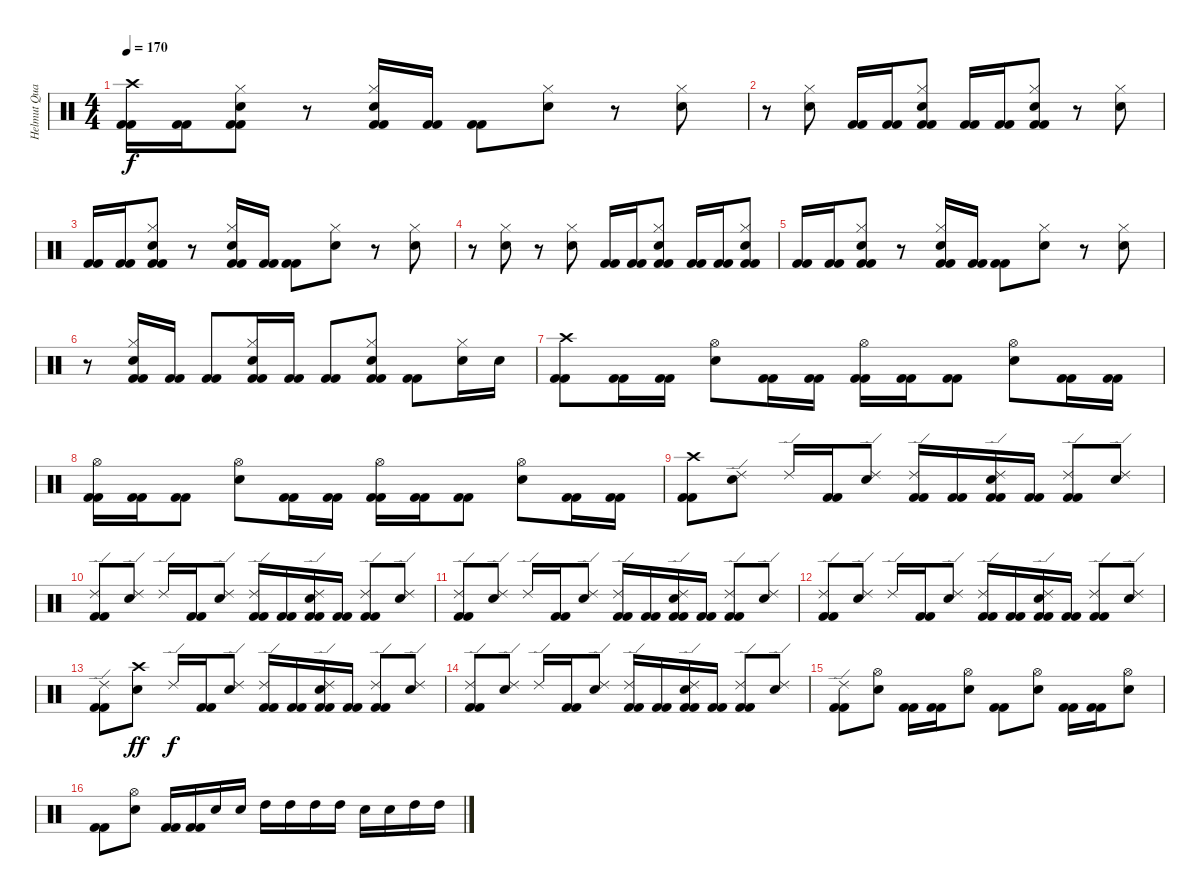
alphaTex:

\track ("Helmut Quacken" "Helmut Qua") {instrument percussion}
\staff {score}
\articulation defaults
\ts (4 4)
\tempo 170
\clef neutral
\ks c
("Crash high (hit)" "Kick (hit) 2" "Kick (hit) 2").16{dy f} ("Kick (hit) 2" "Kick (hit) 2").16 ("Hi-Hat (closed)" "Electric Snare (hit)" "Kick (hit) 2" "Kick (hit) 2").8 r.8 ("Hi-Hat (closed)" "Electric Snare (hit)" "Kick (hit) 2" "Kick (hit) 2").16 ("Kick (hit) 2" "Kick (hit) 2").16 ("Kick (hit) 2" "Kick (hit) 2").8 ("Hi-Hat (closed)" "Electric Snare (hit)").8 r.8 ("Hi-Hat (closed)" "Electric Snare (hit)").8 |
r.8 ("Hi-Hat (closed)" "Electric Snare (hit)").8 ("Kick (hit) 2" "Kick (hit) 2").16 ("Kick (hit) 2" "Kick (hit) 2").16 ("Hi-Hat (closed)" "Electric Snare (hit)" "Kick (hit) 2" "Kick (hit) 2").8 ("Kick (hit) 2" "Kick (hit) 2").16 ("Kick (hit) 2" "Kick (hit) 2").16 ("Hi-Hat (closed)" "Electric Snare (hit)" "Kick (hit) 2" "Kick (hit) 2").8 r.8 ("Hi-Hat (closed)" "Electric Snare (hit)").8 |
("Kick (hit) 2" "Kick (hit) 2").16 ("Kick (hit) 2" "Kick (hit) 2").16 ("Hi-Hat (closed)" "Electric Snare (hit)" "Kick (hit) 2" "Kick (hit) 2").8 r.8 ("Hi-Hat (closed)" "Electric Snare (hit)" "Kick (hit) 2" "Kick (hit) 2").16 ("Kick (hit) 2" "Kick (hit) 2").16 ("Kick (hit) 2" "Kick (hit) 2").8 ("Hi-Hat (closed)" "Electric Snare (hit)").8 r.8 ("Hi-Hat (closed)" "Electric Snare (hit)").8 |
r.8 ("Hi-Hat (closed)" "Electric Snare (hit)").8 r.8 ("Hi-Hat (closed)" "Electric Snare (hit)").8 ("Kick (hit) 2" "Kick (hit) 2").16 ("Kick (hit) 2" "Kick (hit) 2").16 ("Hi-Hat (closed)" "Electric Snare (hit)" "Kick (hit) 2" "Kick (hit) 2").8 ("Kick (hit) 2" "Kick (hit) 2").16 ("Kick (hit) 2" "Kick (hit) 2").16 ("Hi-Hat (closed)" "Electric Snare (hit)" "Kick (hit) 2" "Kick (hit) 2").8 |
("Kick (hit) 2" "Kick (hit) 2").16 ("Kick (hit) 2" "Kick (hit) 2").16 ("Hi-Hat (closed)" "Electric Snare (hit)" "Kick (hit) 2" "Kick (hit) 2").8 r.8 ("Hi-Hat (closed)" "Electric Snare (hit)" "Kick (hit) 2" "Kick (hit) 2").16 ("Kick (hit) 2" "Kick (hit) 2").16 ("Kick (hit) 2" "Kick (hit) 2").8 ("Hi-Hat (closed)" "Electric Snare (hit)").8 r.8 ("Hi-Hat (closed)" "Electric Snare (hit)").8 |
r.8 ("Hi-Hat (closed)" "Electric Snare (hit)" "Kick (hit) 2" "Kick (hit) 2").16 ("Kick (hit) 2" "Kick (hit) 2").16 ("Kick (hit) 2" "Kick (hit) 2").8 ("Hi-Hat (closed)" "Electric Snare (hit)" "Kick (hit) 2" "Kick (hit) 2").16 ("Kick (hit) 2" "Kick (hit) 2").16 ("Kick (hit) 2" "Kick (hit) 2").8 ("Hi-Hat (closed)" "Electric Snare (hit)" "Kick (hit) 2" "Kick (hit) 2").8 ("Kick (hit) 2" "Kick (hit) 2").8 ("Hi-Hat (closed)" "Electric Snare (hit)").16 "Electric Snare (hit)".16 |
("Crash high (hit)" "Kick (hit) 2" "Kick (hit) 2").8 ("Kick (hit) 2" "Kick (hit) 2").16 ("Kick (hit) 2" "Kick (hit) 2").16 ("Hi-Hat (open)" "Electric Snare (hit)").8 ("Kick (hit) 2" "Kick (hit) 2").16 ("Kick (hit) 2" "Kick (hit) 2").16 ("Hi-Hat (open)" "Kick (hit) 2" "Kick (hit) 2").16 ("Kick (hit) 2" "Kick (hit) 2").16 ("Kick (hit) 2" "Kick (hit) 2").8 ("Hi-Hat (open)" "Electric Snare (hit)").8 ("Kick (hit) 2" "Kick (hit) 2").16 ("Kick (hit) 2" "Kick (hit) 2").16 |
("Hi-Hat (open)" "Kick (hit) 2" "Kick (hit) 2").16 ("Kick (hit) 2" "Kick (hit) 2").16 ("Kick (hit) 2" "Kick (hit) 2").8 ("Hi-Hat (open)" "Electric Snare (hit)").8 ("Kick (hit) 2" "Kick (hit) 2").16 ("Kick (hit) 2" "Kick (hit) 2").16 ("Hi-Hat (open)" "Kick (hit) 2" "Kick (hit) 2").16 ("Kick (hit) 2" "Kick (hit) 2").16 ("Kick (hit) 2" "Kick (hit) 2").8 ("Hi-Hat (open)" "Electric Snare (hit)").8 ("Kick (hit) 2" "Kick (hit) 2").16 ("Kick (hit) 2" "Kick (hit) 2").16 |
("Crash high (hit)" "Kick (hit) 2" "Kick (hit) 2").8 ("Ride (edge) 2" "Electric Snare (hit)").8 "Ride (edge) 2".16 ("Kick (hit) 2" "Kick (hit) 2").16 ("Ride (edge) 2" "Electric Snare (hit)").8 ("Ride (edge) 2" "Kick (hit) 2" "Kick (hit) 2").16 ("Kick (hit) 2" "Kick (hit) 2").16 ("Ride (edge) 2" "Electric Snare (hit)" "Kick (hit) 2" "Kick (hit) 2").16 ("Kick (hit) 2" "Kick (hit) 2").16 ("Ride (edge) 2" "Kick (hit) 2" "Kick (hit) 2").8 ("Ride (edge) 2" "Electric Snare (hit)").8 |
("Ride (edge) 2" "Kick (hit) 2" "Kick (hit) 2").8 ("Ride (edge) 2" "Electric Snare (hit)").8 "Ride (edge) 2".16 ("Kick (hit) 2" "Kick (hit) 2").16 ("Ride (edge) 2" "Electric Snare (hit)").8 ("Ride (edge) 2" "Kick (hit) 2" "Kick (hit) 2").16 ("Kick (hit) 2" "Kick (hit) 2").16 ("Ride (edge) 2" "Electric Snare (hit)" "Kick (hit) 2" "Kick (hit) 2").16 ("Kick (hit) 2" "Kick (hit) 2").16 ("Ride (edge) 2" "Kick (hit) 2" "Kick (hit) 2").8 ("Ride (edge) 2" "Electric Snare (hit)").8 |
("Ride (edge) 2" "Kick (hit) 2" "Kick (hit) 2").8 ("Ride (edge) 2" "Electric Snare (hit)").8 "Ride (edge) 2".16 ("Kick (hit) 2" "Kick (hit) 2").16 ("Ride (edge) 2" "Electric Snare (hit)").8 ("Ride (edge) 2" "Kick (hit) 2" "Kick (hit) 2").16 ("Kick (hit) 2" "Kick (hit) 2").16 ("Ride (edge) 2" "Electric Snare (hit)" "Kick (hit) 2" "Kick (hit) 2").16 ("Kick (hit) 2" "Kick (hit) 2").16 ("Ride (edge) 2" "Kick (hit) 2" "Kick (hit) 2").8 ("Ride (edge) 2" "Electric Snare (hit)").8 |
("Ride (edge) 2" "Kick (hit) 2" "Kick (hit) 2").8 ("Ride (edge) 2" "Electric Snare (hit)").8 "Ride (edge) 2".16 ("Kick (hit) 2" "Kick (hit) 2").16 ("Ride (edge) 2" "Electric Snare (hit)").8 ("Ride (edge) 2" "Kick (hit) 2" "Kick (hit) 2").16 ("Kick (hit) 2" "Kick (hit) 2").16 ("Ride (edge) 2" "Electric Snare (hit)" "Kick (hit) 2" "Kick (hit) 2").16 ("Kick (hit) 2" "Kick (hit) 2").16 ("Ride (edge) 2" "Kick (hit) 2" "Kick (hit) 2").8 ("Ride (edge) 2" "Electric Snare (hit)").8 |
("Ride (edge) 2" "Kick (hit) 2" "Kick (hit) 2").8 ("Crash high (hit)" "Electric Snare (hit)").8{dy ff} "Ride (edge) 2".16{dy f} ("Kick (hit) 2" "Kick (hit) 2").16 ("Ride (edge) 2" "Electric Snare (hit)").8 ("Ride (edge) 2" "Kick (hit) 2" "Kick (hit) 2").16 ("Kick (hit) 2" "Kick (hit) 2").16 ("Ride (edge) 2" "Electric Snare (hit)" "Kick (hit) 2" "Kick (hit) 2").16 ("Kick (hit) 2" "Kick (hit) 2").16 ("Ride (edge) 2" "Kick (hit) 2" "Kick (hit) 2").8 ("Ride (edge) 2" "Electric Snare (hit)").8 |
("Ride (edge) 2" "Kick (hit) 2" "Kick (hit) 2").8 ("Ride (edge) 2" "Electric Snare (hit)").8 "Ride (edge) 2".16 ("Kick (hit) 2" "Kick (hit) 2").16 ("Ride (edge) 2" "Electric Snare (hit)").8 ("Ride (edge) 2" "Kick (hit) 2" "Kick (hit) 2").16 ("Kick (hit) 2" "Kick (hit) 2").16 ("Ride (edge) 2" "Electric Snare (hit)" "Kick (hit) 2" "Kick (hit) 2").16 ("Kick (hit) 2" "Kick (hit) 2").16 ("Ride (edge) 2" "Kick (hit) 2" "Kick (hit) 2").8 ("Ride (edge) 2" "Electric Snare (hit)").8 |
("Ride (edge) 2" "Kick (hit) 2" "Kick (hit) 2").8 ("Hi-Hat (open)" "Electric Snare (hit)").8 ("Kick (hit) 2" "Kick (hit) 2").16 ("Kick (hit) 2" "Kick (hit) 2").16 ("Hi-Hat (open)" "Electric Snare (hit)").8 ("Kick (hit) 2" "Kick (hit) 2").8 ("Hi-Hat (open)" "Electric Snare (hit)").8 ("Kick (hit) 2" "Kick (hit) 2").16 ("Kick (hit) 2" "Kick (hit) 2").16 ("Hi-Hat (open)" "Electric Snare (hit)").8 |
("Kick (hit) 2" "Kick (hit) 2").8 ("Hi-Hat (open)" "Electric Snare (hit)").8 ("Kick (hit) 2" "Kick (hit) 2").16 ("Kick (hit) 2" "Kick (hit) 2").16 "Electric Snare (hit)".16 "Electric Snare (hit)".16 "High Tom (hit)".16 "High Tom (hit)".16 "High Tom (hit)".16 "High Tom (hit)".16 "Electric Snare (hit)".16 "Electric Snare (hit)".16 "High Tom (hit)".16 "High Tom (hit)".16
